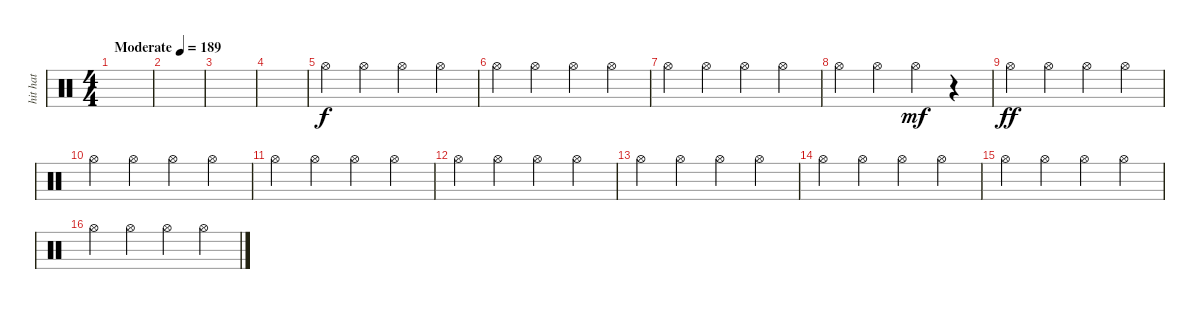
\track ("hit hat" "hit hat") {instrument percussion}
\staff {score}
\articulation defaults
\ts (4 4)
\tempo (189 "Moderate")
\clef neutral
\ks c
|
|
|
|
"Hi-Hat (open)".4 "Hi-Hat (open)".4 "Hi-Hat (open)".4 "Hi-Hat (open)".4 |
"Hi-Hat (open)".4 "Hi-Hat (open)".4 "Hi-Hat (open)".4 "Hi-Hat (open)".4 |
"Hi-Hat (open)".4 "Hi-Hat (open)".4 "Hi-Hat (open)".4 "Hi-Hat (open)".4 |
"Hi-Hat (open)".4 "Hi-Hat (open)".4 "Hi-Hat (open)".4{dy mf} r.4 |
"Hi-Hat (open)".4{dy ff} "Hi-Hat (open)".4 "Hi-Hat (open)".4 "Hi-Hat (open)".4 |
"Hi-Hat (open)".4 "Hi-Hat (open)".4 "Hi-Hat (open)".4 "Hi-Hat (open)".4 |
"Hi-Hat (open)".4 "Hi-Hat (open)".4 "Hi-Hat (open)".4 "Hi-Hat (open)".4 |
"Hi-Hat (open)".4 "Hi-Hat (open)".4 "Hi-Hat (open)".4 "Hi-Hat (open)".4 |
"Hi-Hat (open)".4 "Hi-Hat (open)".4 "Hi-Hat (open)".4 "Hi-Hat (open)".4 |
"Hi-Hat (open)".4 "Hi-Hat (open)".4 "Hi-Hat (open)".4 "Hi-Hat (open)".4 |
"Hi-Hat (open)".4 "Hi-Hat (open)".4 "Hi-Hat (open)".4 "Hi-Hat (open)".4 |
"Hi-Hat (open)".4 "Hi-Hat (open)".4 "Hi-Hat (open)".4 "Hi-Hat (open)".4
